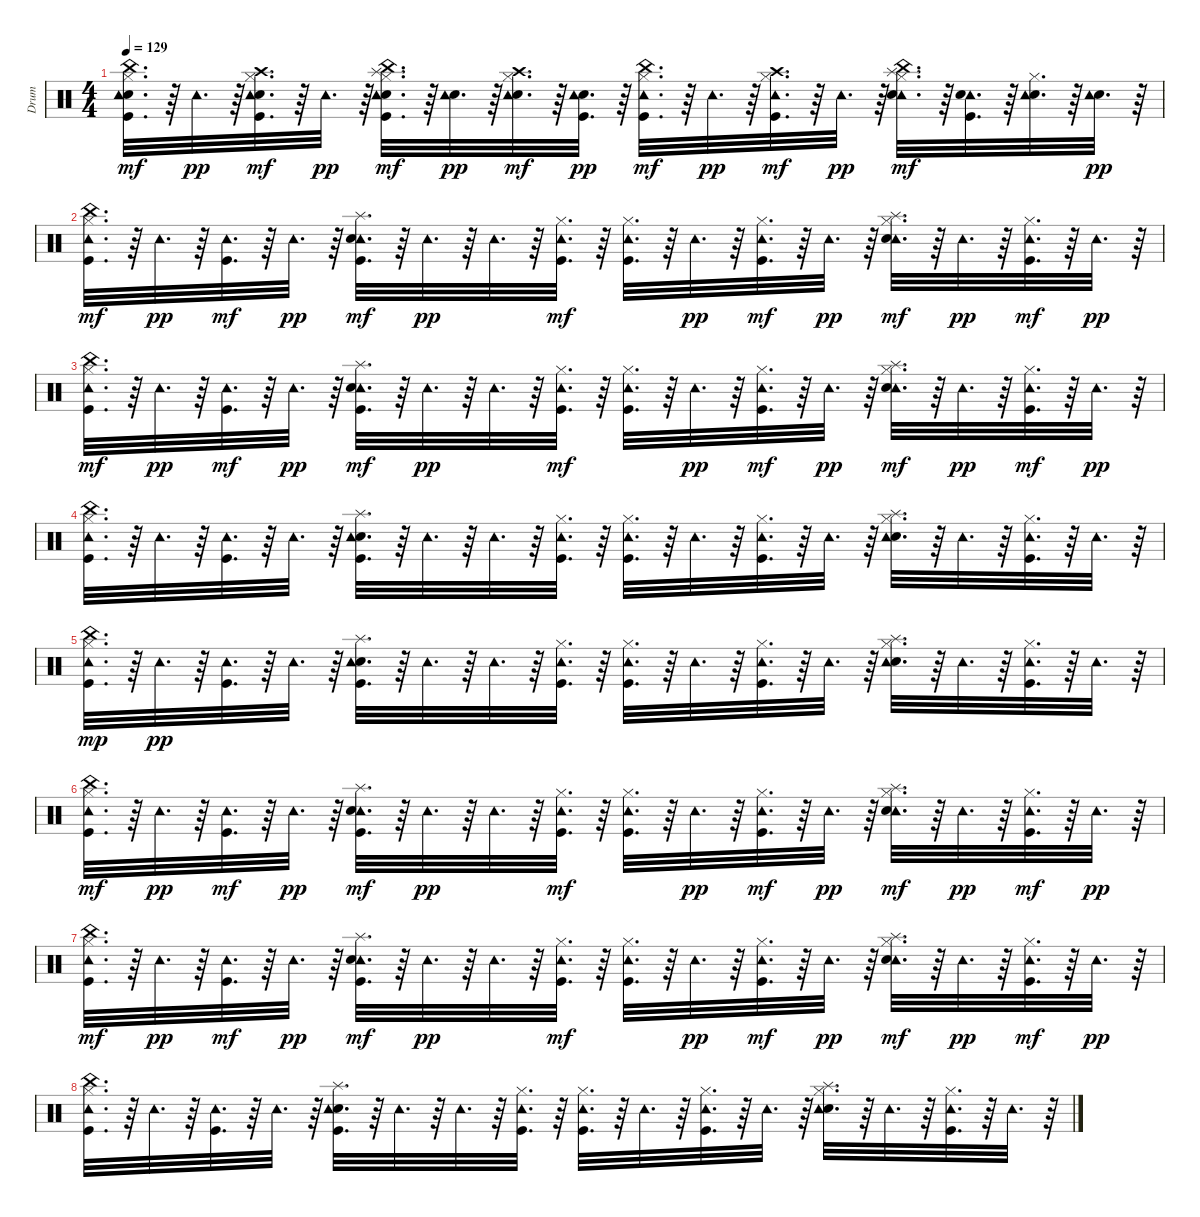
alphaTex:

\track ("Drum" "Drum") {instrument percussion}
\staff {score}
\articulation defaults
\ts (4 4)
\tempo 129
\clef neutral
\ks c
("China (hit)" "Snare (hit) 2" "Tambourine (hit)" "Kick (hit)" "Hi-Hat (closed)").32{d dy mf} r.64 "Tambourine (hit)".32{d dy pp} r.64 ("Crash high (hit)" "Snare (hit) 2" "Kick (hit)" "Tambourine (hit)" "Hi-Hat (closed)").32{d dy mf} r.64 "Tambourine (hit)".32{d dy pp} r.64 ("China (hit)" "Snare (hit) 2" "Splash (hit)" "Kick (hit)" "Tambourine (hit)" "Hi-Hat (closed)").32{d dy mf} r.64 ("Snare (hit) 2" "Tambourine (hit)").32{d dy pp} r.64 ("Crash high (hit)" "Snare (hit) 2" "Tambourine (hit)" "Hi-Hat (closed)").32{d dy mf} r.64 ("Snare (hit) 2" "Kick (hit)" "Tambourine (hit)").32{d dy pp} r.64 ("China (hit)" "Tambourine (hit)" "Hi-Hat (closed)" "Kick (hit)").32{d dy mf} r.64 "Tambourine (hit)".32{d dy pp} r.64 ("Crash high (hit)" "Tambourine (hit)" "Hi-Hat (closed)" "Kick (hit)").32{d dy mf} r.64 "Tambourine (hit)".32{d dy pp} r.64 ("China (hit)" "Tambourine (hit)" "Hi-Hat (closed)" "Snare (hit) 2" "Splash (hit)").32{d dy mf} r.64 ("Tambourine (hit)" "Snare (hit) 2" "Kick (hit)").32{d} r.64 ("Snare (hit) 2" "Tambourine (hit)" "Hi-Hat (closed)").32{d} r.64 ("Snare (hit) 2" "Tambourine (hit)").32{d dy pp} r.64 |
("China (hit)" "Tambourine (hit)" "Hi-Hat (closed)" "Kick (hit)").32{d dy mf} r.64 "Tambourine (hit)".32{d dy pp} r.64 ("Tambourine (hit)" "Kick (hit)").32{d dy mf} r.64 "Tambourine (hit)".32{d dy pp} r.64 ("Tambourine (hit)" "Kick (hit)" "Snare (hit) 2" "Splash (hit)").32{d dy mf} r.64 "Tambourine (hit)".32{d dy pp} r.64 "Tambourine (hit)".32{d} r.64 ("Tambourine (hit)" "Hi-Hat (closed)" "Kick (hit)").32{d dy mf} r.64 ("Tambourine (hit)" "Hi-Hat (closed)" "Kick (hit)").32{d} r.64 "Tambourine (hit)".32{d dy pp} r.64 ("Tambourine (hit)" "Hi-Hat (closed)" "Kick (hit)").32{d dy mf} r.64 "Tambourine (hit)".32{d dy pp} r.64 ("Tambourine (hit)" "Hi-Hat (closed)" "Snare (hit) 2" "Splash (hit)").32{d dy mf} r.64 "Tambourine (hit)".32{d dy pp} r.64 ("Tambourine (hit)" "Hi-Hat (closed)" "Kick (hit)").32{d dy mf} r.64 "Tambourine (hit)".32{d dy pp} r.64 |
("China (hit)" "Tambourine (hit)" "Hi-Hat (closed)" "Kick (hit)").32{d dy mf} r.64 "Tambourine (hit)".32{d dy pp} r.64 ("Tambourine (hit)" "Kick (hit)").32{d dy mf} r.64 "Tambourine (hit)".32{d dy pp} r.64 ("Tambourine (hit)" "Kick (hit)" "Snare (hit) 2" "Splash (hit)").32{d dy mf} r.64 "Tambourine (hit)".32{d dy pp} r.64 "Tambourine (hit)".32{d} r.64 ("Tambourine (hit)" "Hi-Hat (closed)" "Kick (hit)").32{d dy mf} r.64 ("Tambourine (hit)" "Hi-Hat (closed)" "Kick (hit)").32{d} r.64 "Tambourine (hit)".32{d dy pp} r.64 ("Tambourine (hit)" "Hi-Hat (closed)" "Kick (hit)").32{d dy mf} r.64 "Tambourine (hit)".32{d dy pp} r.64 ("Tambourine (hit)" "Hi-Hat (closed)" "Snare (hit) 2" "Splash (hit)").32{d dy mf} r.64 "Tambourine (hit)".32{d dy pp} r.64 ("Tambourine (hit)" "Hi-Hat (closed)" "Kick (hit)").32{d dy mf} r.64 "Tambourine (hit)".32{d dy pp} r.64 |
("China (hit)" "Kick (hit)" "Hi-Hat (closed)" "Tambourine (hit)").32{d} r.64 "Tambourine (hit)".32{d} r.64 ("Kick (hit)" "Tambourine (hit)").32{d} r.64 "Tambourine (hit)".32{d} r.64 ("Splash (hit)" "Snare (hit) 2" "Kick (hit)" "Tambourine (hit)").32{d} r.64 "Tambourine (hit)".32{d} r.64 "Tambourine (hit)".32{d} r.64 ("Kick (hit)" "Hi-Hat (closed)" "Tambourine (hit)").32{d} r.64 ("Kick (hit)" "Hi-Hat (closed)" "Tambourine (hit)").32{d} r.64 "Tambourine (hit)".32{d} r.64 ("Kick (hit)" "Hi-Hat (closed)" "Tambourine (hit)").32{d} r.64 "Tambourine (hit)".32{d} r.64 ("Splash (hit)" "Snare (hit) 2" "Hi-Hat (closed)" "Tambourine (hit)").32{d} r.64 "Tambourine (hit)".32{d} r.64 ("Kick (hit)" "Hi-Hat (closed)" "Tambourine (hit)").32{d} r.64 "Tambourine (hit)".32{d} r.64 |
("Kick (hit)" "Hi-Hat (closed)" "Tambourine (hit)" "China (hit)").32{d dy mp} r.64 "Tambourine (hit)".32{d dy pp} r.64 ("Kick (hit)" "Tambourine (hit)").32{d} r.64 "Tambourine (hit)".32{d} r.64 ("Splash (hit)" "Snare (hit) 2" "Kick (hit)" "Tambourine (hit)").32{d} r.64 "Tambourine (hit)".32{d} r.64 "Tambourine (hit)".32{d} r.64 ("Kick (hit)" "Hi-Hat (closed)" "Tambourine (hit)").32{d} r.64 ("Kick (hit)" "Hi-Hat (closed)" "Tambourine (hit)").32{d} r.64 "Tambourine (hit)".32{d} r.64 ("Kick (hit)" "Hi-Hat (closed)" "Tambourine (hit)").32{d} r.64 "Tambourine (hit)".32{d} r.64 ("Splash (hit)" "Snare (hit) 2" "Hi-Hat (closed)" "Tambourine (hit)").32{d} r.64 "Tambourine (hit)".32{d} r.64 ("Kick (hit)" "Hi-Hat (closed)" "Tambourine (hit)").32{d} r.64 "Tambourine (hit)".32{d} r.64 |
("China (hit)" "Tambourine (hit)" "Hi-Hat (closed)" "Kick (hit)").32{d dy mf} r.64 "Tambourine (hit)".32{d dy pp} r.64 ("Tambourine (hit)" "Kick (hit)").32{d dy mf} r.64 "Tambourine (hit)".32{d dy pp} r.64 ("Tambourine (hit)" "Kick (hit)" "Snare (hit) 2" "Splash (hit)").32{d dy mf} r.64 "Tambourine (hit)".32{d dy pp} r.64 "Tambourine (hit)".32{d} r.64 ("Tambourine (hit)" "Hi-Hat (closed)" "Kick (hit)").32{d dy mf} r.64 ("Tambourine (hit)" "Hi-Hat (closed)" "Kick (hit)").32{d} r.64 "Tambourine (hit)".32{d dy pp} r.64 ("Tambourine (hit)" "Hi-Hat (closed)" "Kick (hit)").32{d dy mf} r.64 "Tambourine (hit)".32{d dy pp} r.64 ("Tambourine (hit)" "Hi-Hat (closed)" "Snare (hit) 2" "Splash (hit)").32{d dy mf} r.64 "Tambourine (hit)".32{d dy pp} r.64 ("Tambourine (hit)" "Hi-Hat (closed)" "Kick (hit)").32{d dy mf} r.64 "Tambourine (hit)".32{d dy pp} r.64 |
("China (hit)" "Tambourine (hit)" "Hi-Hat (closed)" "Kick (hit)").32{d dy mf} r.64 "Tambourine (hit)".32{d dy pp} r.64 ("Tambourine (hit)" "Kick (hit)").32{d dy mf} r.64 "Tambourine (hit)".32{d dy pp} r.64 ("Tambourine (hit)" "Kick (hit)" "Snare (hit) 2" "Splash (hit)").32{d dy mf} r.64 "Tambourine (hit)".32{d dy pp} r.64 "Tambourine (hit)".32{d} r.64 ("Tambourine (hit)" "Hi-Hat (closed)" "Kick (hit)").32{d dy mf} r.64 ("Tambourine (hit)" "Hi-Hat (closed)" "Kick (hit)").32{d} r.64 "Tambourine (hit)".32{d dy pp} r.64 ("Tambourine (hit)" "Hi-Hat (closed)" "Kick (hit)").32{d dy mf} r.64 "Tambourine (hit)".32{d dy pp} r.64 ("Tambourine (hit)" "Hi-Hat (closed)" "Snare (hit) 2" "Splash (hit)").32{d dy mf} r.64 "Tambourine (hit)".32{d dy pp} r.64 ("Tambourine (hit)" "Hi-Hat (closed)" "Kick (hit)").32{d dy mf} r.64 "Tambourine (hit)".32{d dy pp} r.64 |
("China (hit)" "Kick (hit)" "Hi-Hat (closed)" "Tambourine (hit)").32{d} r.64 "Tambourine (hit)".32{d} r.64 ("Kick (hit)" "Tambourine (hit)").32{d} r.64 "Tambourine (hit)".32{d} r.64 ("Splash (hit)" "Snare (hit) 2" "Kick (hit)" "Tambourine (hit)").32{d} r.64 "Tambourine (hit)".32{d} r.64 "Tambourine (hit)".32{d} r.64 ("Kick (hit)" "Hi-Hat (closed)" "Tambourine (hit)").32{d} r.64 ("Kick (hit)" "Hi-Hat (closed)" "Tambourine (hit)").32{d} r.64 "Tambourine (hit)".32{d} r.64 ("Kick (hit)" "Hi-Hat (closed)" "Tambourine (hit)").32{d} r.64 "Tambourine (hit)".32{d} r.64 ("Splash (hit)" "Snare (hit) 2" "Hi-Hat (closed)" "Tambourine (hit)").32{d} r.64 "Tambourine (hit)".32{d} r.64 ("Kick (hit)" "Hi-Hat (closed)" "Tambourine (hit)").32{d} r.64 "Tambourine (hit)".32{d} r.64
